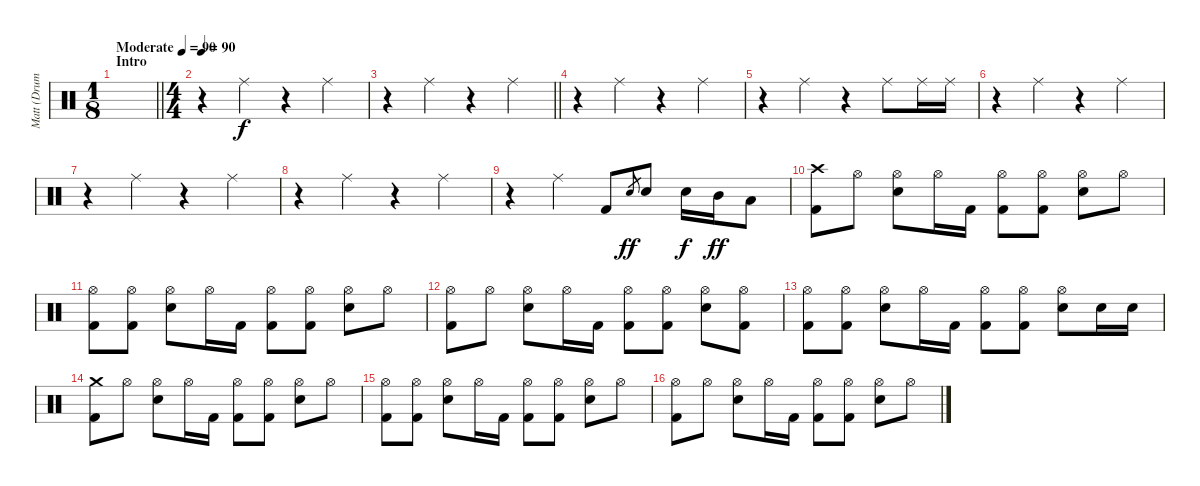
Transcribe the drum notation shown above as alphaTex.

\track ("Matt (Drums)" "Matt (Drum") {instrument percussion}
\staff {score}
\articulation defaults
\ts (1 8)
\section ("" "Intro")
\tempo (90 "Moderate")
\clef neutral
\barLineRight lightlight
\ks c
|
\ts (4 4)
\section ("" "")
\tempo 90
r.4 "Ride (middle)".4 r.4 "Ride (middle)".4 |
\barLineRight lightlight
r.4 "Ride (middle)".4 r.4 "Ride (middle)".4 |
\section ("" "")
r.4 "Ride (middle)".4 r.4 "Ride (middle)".4 |
r.4 "Ride (middle)".4 r.4 "Ride (middle)".8 "Ride (middle)".16 "Ride (middle)".16 |
r.4 "Ride (middle)".4 r.4 "Ride (middle)".4 |
r.4 "Ride (middle)".4 r.4 "Ride (middle)".4 |
r.4 "Ride (middle)".4 r.4 "Ride (middle)".4 |
r.4 "Ride (middle)".4 "Kick (hit) 2".8{dy f} "Snare (hit) 2".8{gr dy ff} "Snare (hit) 2".8 "Snare (hit) 2".16{dy f} "Mid Tom (hit)".16{dy ff} "Low Tom (hit)".8 |
("Crash high (hit)" "Kick (hit) 2").8 "Hi-Hat (open)".8 ("Hi-Hat (open)" "Snare (hit) 2").8 "Hi-Hat (open)".16 "Kick (hit) 2".16 ("Hi-Hat (open)" "Kick (hit) 2").8 ("Hi-Hat (open)" "Kick (hit) 2").8 ("Hi-Hat (open)" "Snare (hit) 2").8 "Hi-Hat (open)".8 |
("Hi-Hat (open)" "Kick (hit) 2").8 ("Hi-Hat (open)" "Kick (hit) 2").8 ("Hi-Hat (open)" "Snare (hit) 2").8 "Hi-Hat (open)".16 "Kick (hit) 2".16 ("Hi-Hat (open)" "Kick (hit) 2").8 ("Hi-Hat (open)" "Kick (hit) 2").8 ("Hi-Hat (open)" "Snare (hit) 2").8 "Hi-Hat (open)".8 |
("Hi-Hat (open)" "Kick (hit) 2").8 "Hi-Hat (open)".8 ("Hi-Hat (open)" "Snare (hit) 2").8 "Hi-Hat (open)".16 "Kick (hit) 2".16 ("Hi-Hat (open)" "Kick (hit) 2").8 ("Hi-Hat (open)" "Kick (hit) 2").8 ("Hi-Hat (open)" "Snare (hit) 2").8 ("Hi-Hat (open)" "Kick (hit) 2").8 |
("Hi-Hat (open)" "Kick (hit) 2").8 ("Hi-Hat (open)" "Kick (hit) 2").8 ("Hi-Hat (open)" "Snare (hit) 2").8 "Hi-Hat (open)".16 "Kick (hit) 2".16 ("Hi-Hat (open)" "Kick (hit) 2").8 ("Hi-Hat (open)" "Kick (hit) 2").8 ("Hi-Hat (open)" "Snare (hit) 2").8 "Snare (hit) 2".16 "Snare (hit) 2".16 |
("Crash medium (hit)" "Kick (hit) 2").8 "Hi-Hat (open)".8 ("Hi-Hat (open)" "Snare (hit) 2").8 "Hi-Hat (open)".16 "Kick (hit) 2".16 ("Hi-Hat (open)" "Kick (hit) 2").8 ("Hi-Hat (open)" "Kick (hit) 2").8 ("Hi-Hat (open)" "Snare (hit) 2").8 "Hi-Hat (open)".8 |
("Hi-Hat (open)" "Kick (hit) 2").8 ("Hi-Hat (open)" "Kick (hit) 2").8 ("Hi-Hat (open)" "Snare (hit) 2").8 "Hi-Hat (open)".16 "Kick (hit) 2".16 ("Hi-Hat (open)" "Kick (hit) 2").8 ("Hi-Hat (open)" "Kick (hit) 2").8 ("Hi-Hat (open)" "Snare (hit) 2").8 "Hi-Hat (open)".8 |
("Hi-Hat (open)" "Kick (hit) 2").8 "Hi-Hat (open)".8 ("Hi-Hat (open)" "Snare (hit) 2").8 "Hi-Hat (open)".16 "Kick (hit) 2".16 ("Hi-Hat (open)" "Kick (hit) 2").8 ("Hi-Hat (open)" "Kick (hit) 2").8 ("Hi-Hat (open)" "Snare (hit) 2").8 "Hi-Hat (open)".8
